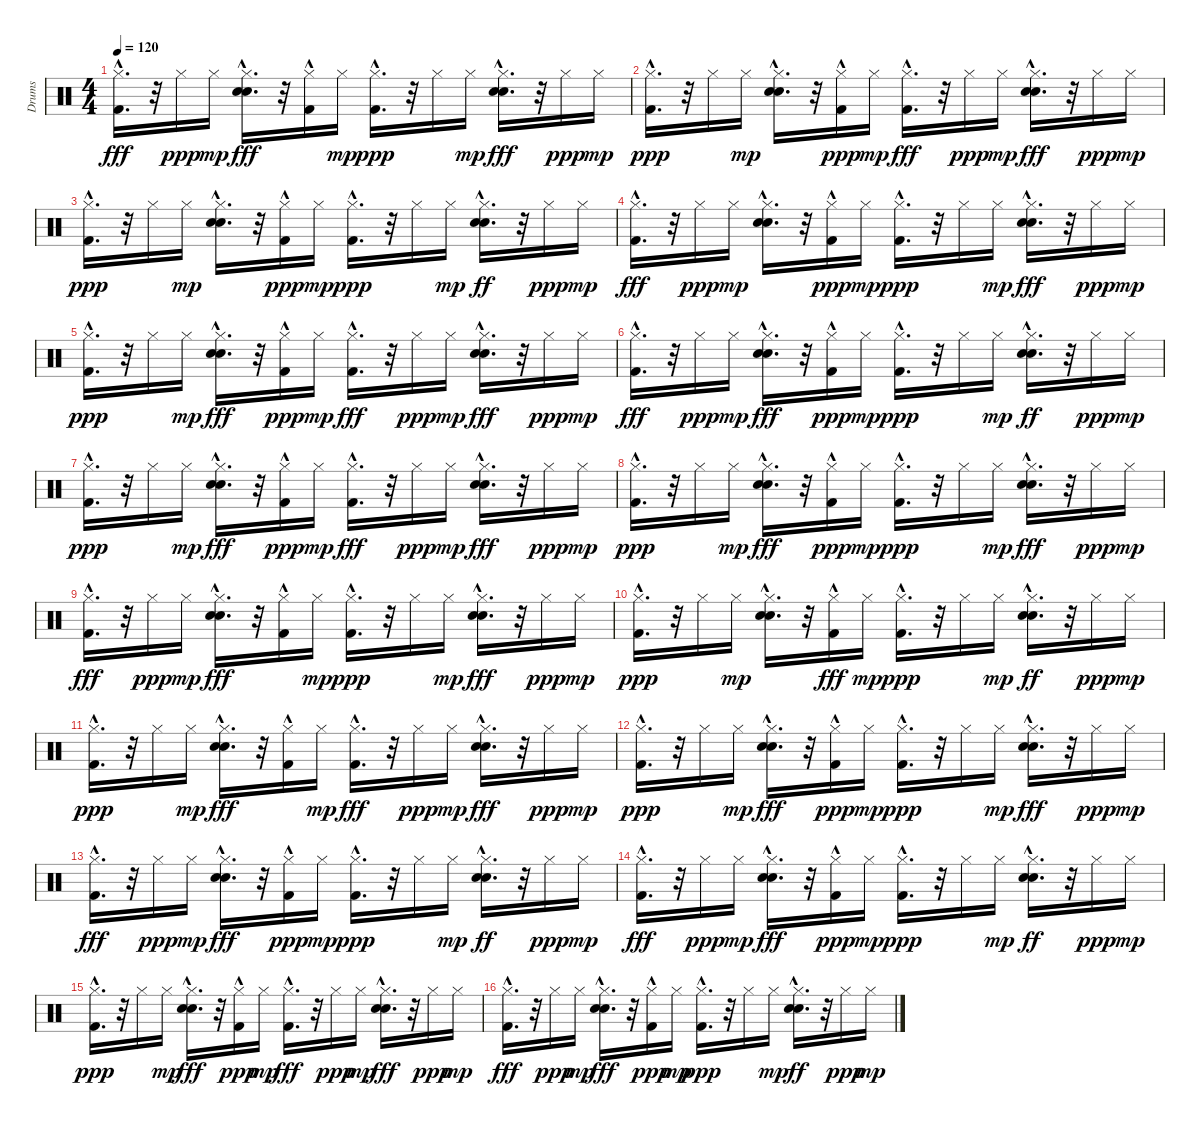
\track ("Drums" "Drums") {instrument percussion}
\staff {score}
\articulation defaults
\ts (4 4)
\tempo 120
\clef neutral
\ks c
("Hi-Hat (closed)"{hac} "Kick (hit) 2"{hac}).16{d dy fff} r.32 "Hi-Hat (closed)".16{dy ppp} "Hi-Hat (closed)".16{dy mp} ("Hi-Hat (closed)"{hac} "Snare (hit) 2"{hac} "Hand Clap (hit)"{hac}).16{d dy fff} r.32 ("Hi-Hat (closed)" "Kick (hit) 2"{hac}).16 "Hi-Hat (closed)".16{dy mp} ("Kick (hit) 2"{hac} "Hi-Hat (closed)"{hac}).16{d dy ppp} r.32 "Hi-Hat (closed)".16 "Hi-Hat (closed)".16{dy mp} ("Hi-Hat (closed)"{hac} "Snare (hit) 2"{hac} "Hand Clap (hit)"{hac}).16{d dy fff} r.32 "Hi-Hat (closed)".16{dy ppp} "Hi-Hat (closed)".16{dy mp} |
("Kick (hit) 2"{hac} "Hi-Hat (closed)"{hac}).16{d dy ppp} r.32 "Hi-Hat (closed)".16 "Hi-Hat (closed)".16{dy mp} ("Hand Clap (hit)"{hac} "Snare (hit) 2"{hac} "Hi-Hat (closed)"{hac}).16{d} r.32 ("Kick (hit) 2"{hac} "Hi-Hat (closed)").16{dy ppp} "Hi-Hat (closed)".16{dy mp} ("Hi-Hat (closed)"{hac} "Kick (hit) 2"{hac}).16{d dy fff} r.32 "Hi-Hat (closed)".16{dy ppp} "Hi-Hat (closed)".16{dy mp} ("Hi-Hat (closed)"{hac} "Hand Clap (hit)"{hac} "Snare (hit) 2"{hac}).16{d dy fff} r.32 "Hi-Hat (closed)".16{dy ppp} "Hi-Hat (closed)".16{dy mp} |
("Kick (hit) 2"{hac} "Hi-Hat (closed)"{hac}).16{d dy ppp} r.32 "Hi-Hat (closed)".16 "Hi-Hat (closed)".16{dy mp} ("Snare (hit) 2"{hac} "Hand Clap (hit)"{hac} "Hi-Hat (closed)"{hac}).16{d} r.32 ("Kick (hit) 2"{hac} "Hi-Hat (closed)").16{dy ppp} "Hi-Hat (closed)".16{dy mp} ("Kick (hit) 2"{hac} "Hi-Hat (closed)"{hac}).16{d dy ppp} r.32 "Hi-Hat (closed)".16 "Hi-Hat (closed)".16{dy mp} ("Hand Clap (hit)"{hac} "Snare (hit) 2"{hac} "Hi-Hat (closed)"{hac}).16{d dy ff} r.32 "Hi-Hat (closed)".16{dy ppp} "Hi-Hat (closed)".16{dy mp} |
("Hi-Hat (closed)"{hac} "Kick (hit) 2"{hac}).16{d dy fff} r.32 "Hi-Hat (closed)".16{dy ppp} "Hi-Hat (closed)".16{dy mp} ("Hand Clap (hit)"{hac} "Snare (hit) 2"{hac} "Hi-Hat (closed)"{hac}).16{d} r.32 ("Kick (hit) 2"{hac} "Hi-Hat (closed)").16{dy ppp} "Hi-Hat (closed)".16{dy mp} ("Kick (hit) 2"{hac} "Hi-Hat (closed)"{hac}).16{d dy ppp} r.32 "Hi-Hat (closed)".16 "Hi-Hat (closed)".16{dy mp} ("Hi-Hat (closed)"{hac} "Snare (hit) 2"{hac} "Hand Clap (hit)"{hac}).16{d dy fff} r.32 "Hi-Hat (closed)".16{dy ppp} "Hi-Hat (closed)".16{dy mp} |
("Kick (hit) 2"{hac} "Hi-Hat (closed)"{hac}).16{d dy ppp} r.32 "Hi-Hat (closed)".16 "Hi-Hat (closed)".16{dy mp} ("Hi-Hat (closed)"{hac} "Hand Clap (hit)"{hac} "Snare (hit) 2"{hac}).16{d dy fff} r.32 ("Kick (hit) 2"{hac} "Hi-Hat (closed)").16{dy ppp} "Hi-Hat (closed)".16{dy mp} ("Hi-Hat (closed)"{hac} "Kick (hit) 2"{hac}).16{d dy fff} r.32 "Hi-Hat (closed)".16{dy ppp} "Hi-Hat (closed)".16{dy mp} ("Hi-Hat (closed)"{hac} "Snare (hit) 2"{hac} "Hand Clap (hit)"{hac}).16{d dy fff} r.32 "Hi-Hat (closed)".16{dy ppp} "Hi-Hat (closed)".16{dy mp} |
("Hi-Hat (closed)"{hac} "Kick (hit) 2"{hac}).16{d dy fff} r.32 "Hi-Hat (closed)".16{dy ppp} "Hi-Hat (closed)".16{dy mp} ("Hand Clap (hit)"{hac} "Hi-Hat (closed)"{hac} "Snare (hit) 2"{hac}).16{d dy fff} r.32 ("Kick (hit) 2"{hac} "Hi-Hat (closed)").16{dy ppp} "Hi-Hat (closed)".16{dy mp} ("Kick (hit) 2"{hac} "Hi-Hat (closed)"{hac}).16{d dy ppp} r.32 "Hi-Hat (closed)".16 "Hi-Hat (closed)".16{dy mp} ("Hand Clap (hit)"{hac} "Snare (hit) 2"{hac} "Hi-Hat (closed)"{hac}).16{d dy ff} r.32 "Hi-Hat (closed)".16{dy ppp} "Hi-Hat (closed)".16{dy mp} |
("Kick (hit) 2"{hac} "Hi-Hat (closed)"{hac}).16{d dy ppp} r.32 "Hi-Hat (closed)".16 "Hi-Hat (closed)".16{dy mp} ("Hand Clap (hit)"{hac} "Hi-Hat (closed)"{hac} "Snare (hit) 2"{hac}).16{d dy fff} r.32 ("Kick (hit) 2"{hac} "Hi-Hat (closed)").16{dy ppp} "Hi-Hat (closed)".16{dy mp} ("Hi-Hat (closed)"{hac} "Kick (hit) 2"{hac}).16{d dy fff} r.32 "Hi-Hat (closed)".16{dy ppp} "Hi-Hat (closed)".16{dy mp} ("Snare (hit) 2"{hac} "Hi-Hat (closed)"{hac} "Hand Clap (hit)"{hac}).16{d dy fff} r.32 "Hi-Hat (closed)".16{dy ppp} "Hi-Hat (closed)".16{dy mp} |
("Kick (hit) 2"{hac} "Hi-Hat (closed)"{hac}).16{d dy ppp} r.32 "Hi-Hat (closed)".16 "Hi-Hat (closed)".16{dy mp} ("Snare (hit) 2"{hac} "Hi-Hat (closed)"{hac} "Hand Clap (hit)"{hac}).16{d dy fff} r.32 ("Kick (hit) 2"{hac} "Hi-Hat (closed)").16{dy ppp} "Hi-Hat (closed)".16{dy mp} ("Kick (hit) 2"{hac} "Hi-Hat (closed)"{hac}).16{d dy ppp} r.32 "Hi-Hat (closed)".16 "Hi-Hat (closed)".16{dy mp} ("Hand Clap (hit)"{hac} "Hi-Hat (closed)"{hac} "Snare (hit) 2"{hac}).16{d dy fff} r.32 "Hi-Hat (closed)".16{dy ppp} "Hi-Hat (closed)".16{dy mp} |
("Hi-Hat (closed)"{hac} "Kick (hit) 2"{hac}).16{d dy fff} r.32 "Hi-Hat (closed)".16{dy ppp} "Hi-Hat (closed)".16{dy mp} ("Hi-Hat (closed)"{hac} "Snare (hit) 2"{hac} "Hand Clap (hit)"{hac}).16{d dy fff} r.32 ("Hi-Hat (closed)" "Kick (hit) 2"{hac}).16 "Hi-Hat (closed)".16{dy mp} ("Kick (hit) 2"{hac} "Hi-Hat (closed)"{hac}).16{d dy ppp} r.32 "Hi-Hat (closed)".16 "Hi-Hat (closed)".16{dy mp} ("Hand Clap (hit)"{hac} "Hi-Hat (closed)"{hac} "Snare (hit) 2"{hac}).16{d dy fff} r.32 "Hi-Hat (closed)".16{dy ppp} "Hi-Hat (closed)".16{dy mp} |
("Kick (hit) 2"{hac} "Hi-Hat (closed)"{hac}).16{d dy ppp} r.32 "Hi-Hat (closed)".16 "Hi-Hat (closed)".16{dy mp} ("Hand Clap (hit)"{hac} "Snare (hit) 2"{hac} "Hi-Hat (closed)"{hac}).16{d} r.32 ("Hi-Hat (closed)" "Kick (hit) 2"{hac}).16{dy fff} "Hi-Hat (closed)".16{dy mp} ("Kick (hit) 2"{hac} "Hi-Hat (closed)"{hac}).16{d dy ppp} r.32 "Hi-Hat (closed)".16 "Hi-Hat (closed)".16{dy mp} ("Hand Clap (hit)"{hac} "Snare (hit) 2"{hac} "Hi-Hat (closed)"{hac}).16{d dy ff} r.32 "Hi-Hat (closed)".16{dy ppp} "Hi-Hat (closed)".16{dy mp} |
("Kick (hit) 2"{hac} "Hi-Hat (closed)"{hac}).16{d dy ppp} r.32 "Hi-Hat (closed)".16 "Hi-Hat (closed)".16{dy mp} ("Hi-Hat (closed)"{hac} "Snare (hit) 2"{hac} "Hand Clap (hit)"{hac}).16{d dy fff} r.32 ("Hi-Hat (closed)" "Kick (hit) 2"{hac}).16 "Hi-Hat (closed)".16{dy mp} ("Hi-Hat (closed)"{hac} "Kick (hit) 2"{hac}).16{d dy fff} r.32 "Hi-Hat (closed)".16{dy ppp} "Hi-Hat (closed)".16{dy mp} ("Snare (hit) 2"{hac} "Hi-Hat (closed)"{hac} "Hand Clap (hit)"{hac}).16{d dy fff} r.32 "Hi-Hat (closed)".16{dy ppp} "Hi-Hat (closed)".16{dy mp} |
("Kick (hit) 2"{hac} "Hi-Hat (closed)"{hac}).16{d dy ppp} r.32 "Hi-Hat (closed)".16 "Hi-Hat (closed)".16{dy mp} ("Hi-Hat (closed)"{hac} "Snare (hit) 2"{hac} "Hand Clap (hit)"{hac}).16{d dy fff} r.32 ("Kick (hit) 2"{hac} "Hi-Hat (closed)").16{dy ppp} "Hi-Hat (closed)".16{dy mp} ("Kick (hit) 2"{hac} "Hi-Hat (closed)"{hac}).16{d dy ppp} r.32 "Hi-Hat (closed)".16 "Hi-Hat (closed)".16{dy mp} ("Snare (hit) 2"{hac} "Hi-Hat (closed)"{hac} "Hand Clap (hit)"{hac}).16{d dy fff} r.32 "Hi-Hat (closed)".16{dy ppp} "Hi-Hat (closed)".16{dy mp} |
("Hi-Hat (closed)"{hac} "Kick (hit) 2"{hac}).16{d dy fff} r.32 "Hi-Hat (closed)".16{dy ppp} "Hi-Hat (closed)".16{dy mp} ("Hi-Hat (closed)"{hac} "Snare (hit) 2"{hac} "Hand Clap (hit)"{hac}).16{d dy fff} r.32 ("Kick (hit) 2"{hac} "Hi-Hat (closed)").16{dy ppp} "Hi-Hat (closed)".16{dy mp} ("Kick (hit) 2"{hac} "Hi-Hat (closed)"{hac}).16{d dy ppp} r.32 "Hi-Hat (closed)".16 "Hi-Hat (closed)".16{dy mp} ("Hand Clap (hit)"{hac} "Snare (hit) 2"{hac} "Hi-Hat (closed)"{hac}).16{d dy ff} r.32 "Hi-Hat (closed)".16{dy ppp} "Hi-Hat (closed)".16{dy mp} |
("Hi-Hat (closed)"{hac} "Kick (hit) 2"{hac}).16{d dy fff} r.32 "Hi-Hat (closed)".16{dy ppp} "Hi-Hat (closed)".16{dy mp} ("Snare (hit) 2"{hac} "Hi-Hat (closed)"{hac} "Hand Clap (hit)"{hac}).16{d dy fff} r.32 ("Kick (hit) 2"{hac} "Hi-Hat (closed)").16{dy ppp} "Hi-Hat (closed)".16{dy mp} ("Kick (hit) 2"{hac} "Hi-Hat (closed)"{hac}).16{d dy ppp} r.32 "Hi-Hat (closed)".16 "Hi-Hat (closed)".16{dy mp} ("Hand Clap (hit)"{hac} "Snare (hit) 2"{hac} "Hi-Hat (closed)"{hac}).16{d dy ff} r.32 "Hi-Hat (closed)".16{dy ppp} "Hi-Hat (closed)".16{dy mp} |
("Kick (hit) 2"{hac} "Hi-Hat (closed)"{hac}).16{d dy ppp} r.32 "Hi-Hat (closed)".16 "Hi-Hat (closed)".16{dy mp} ("Hand Clap (hit)"{hac} "Hi-Hat (closed)"{hac} "Snare (hit) 2"{hac}).16{d dy fff} r.32 ("Kick (hit) 2"{hac} "Hi-Hat (closed)").16{dy ppp} "Hi-Hat (closed)".16{dy mp} ("Hi-Hat (closed)"{hac} "Kick (hit) 2"{hac}).16{d dy fff} r.32 "Hi-Hat (closed)".16{dy ppp} "Hi-Hat (closed)".16{dy mp} ("Hi-Hat (closed)"{hac} "Snare (hit) 2"{hac} "Hand Clap (hit)"{hac}).16{d dy fff} r.32 "Hi-Hat (closed)".16{dy ppp} "Hi-Hat (closed)".16{dy mp} |
("Hi-Hat (closed)"{hac} "Kick (hit) 2"{hac}).16{d dy fff} r.32 "Hi-Hat (closed)".16{dy ppp} "Hi-Hat (closed)".16{dy mp} ("Snare (hit) 2"{hac} "Hi-Hat (closed)"{hac} "Hand Clap (hit)"{hac}).16{d dy fff} r.32 ("Kick (hit) 2"{hac} "Hi-Hat (closed)").16{dy ppp} "Hi-Hat (closed)".16{dy mp} ("Kick (hit) 2"{hac} "Hi-Hat (closed)"{hac}).16{d dy ppp} r.32 "Hi-Hat (closed)".16 "Hi-Hat (closed)".16{dy mp} ("Snare (hit) 2"{hac} "Hand Clap (hit)"{hac} "Hi-Hat (closed)"{hac}).16{d dy ff} r.32 "Hi-Hat (closed)".16{dy ppp} "Hi-Hat (closed)".16{dy mp}
